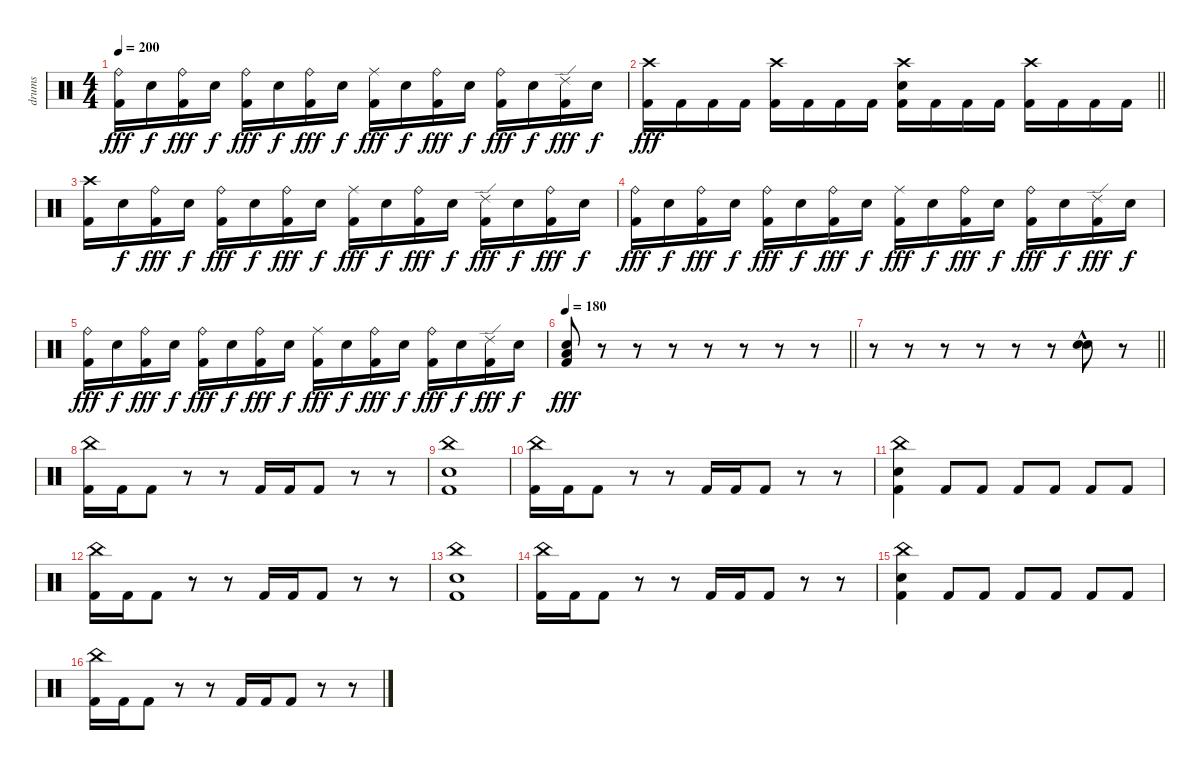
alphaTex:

\track ("drums" "drums") {instrument percussion}
\staff {score}
\articulation defaults
\ts (4 4)
\tempo 200
\clef neutral
\ks c
("Ride (bell)" "Kick (hit) 2").16{dy fff} "Electric Snare (hit)".16{dy f} ("Ride (bell)" "Kick (hit) 2").16{dy fff} "Electric Snare (hit)".16{dy f} ("Ride (bell)" "Kick (hit) 2").16{dy fff} "Electric Snare (hit)".16{dy f} ("Ride (bell)" "Kick (hit) 2").16{dy fff} "Electric Snare (hit)".16{dy f} ("Ride (middle)" "Kick (hit) 2").16{dy fff} "Electric Snare (hit)".16{dy f} ("Ride (bell)" "Kick (hit) 2").16{dy fff} "Electric Snare (hit)".16{dy f} ("Ride (bell)" "Kick (hit) 2").16{dy fff} "Electric Snare (hit)".16{dy f} ("Ride (edge) 2" "Kick (hit) 2").16{dy fff} "Electric Snare (hit)".16{dy f} |
\barLineRight lightlight
("Crash high (hit)" "Kick (hit) 2").16{dy fff} "Kick (hit) 2".16 "Kick (hit) 2".16 "Kick (hit) 2".16 ("Crash high (hit)" "Kick (hit) 2").16 "Kick (hit) 2".16 "Kick (hit) 2".16 "Kick (hit) 2".16 ("Crash high (hit)" "Electric Snare (hit)" "Kick (hit) 2").16 "Kick (hit) 2".16 "Kick (hit) 2".16 "Kick (hit) 2".16 ("Crash high (hit)" "Kick (hit) 2").16 "Kick (hit) 2".16 "Kick (hit) 2".16 "Kick (hit) 2".16 |
("Crash high (hit)" "Kick (hit) 2").16 "Electric Snare (hit)".16{dy f} ("Ride (bell)" "Kick (hit) 2").16{dy fff} "Electric Snare (hit)".16{dy f} ("Ride (bell)" "Kick (hit) 2").16{dy fff} "Electric Snare (hit)".16{dy f} ("Ride (bell)" "Kick (hit) 2").16{dy fff} "Electric Snare (hit)".16{dy f} ("Ride (middle)" "Kick (hit) 2").16{dy fff} "Electric Snare (hit)".16{dy f} ("Ride (bell)" "Kick (hit) 2").16{dy fff} "Electric Snare (hit)".16{dy f} ("Ride (edge) 2" "Kick (hit) 2").16{dy fff} "Electric Snare (hit)".16{dy f} ("Ride (bell)" "Kick (hit) 2").16{dy fff} "Electric Snare (hit)".16{dy f} |
("Ride (bell)" "Kick (hit) 2").16{dy fff} "Electric Snare (hit)".16{dy f} ("Ride (bell)" "Kick (hit) 2").16{dy fff} "Electric Snare (hit)".16{dy f} ("Ride (bell)" "Kick (hit) 2").16{dy fff} "Electric Snare (hit)".16{dy f} ("Ride (bell)" "Kick (hit) 2").16{dy fff} "Electric Snare (hit)".16{dy f} ("Ride (middle)" "Kick (hit) 2").16{dy fff} "Electric Snare (hit)".16{dy f} ("Ride (bell)" "Kick (hit) 2").16{dy fff} "Electric Snare (hit)".16{dy f} ("Ride (bell)" "Kick (hit) 2").16{dy fff} "Electric Snare (hit)".16{dy f} ("Ride (edge) 2" "Kick (hit) 2").16{dy fff} "Electric Snare (hit)".16{dy f} |
("Ride (bell)" "Kick (hit) 2").16{dy fff} "Electric Snare (hit)".16{dy f} ("Ride (bell)" "Kick (hit) 2").16{dy fff} "Electric Snare (hit)".16{dy f} ("Ride (bell)" "Kick (hit) 2").16{dy fff} "Electric Snare (hit)".16{dy f} ("Ride (bell)" "Kick (hit) 2").16{dy fff} "Electric Snare (hit)".16{dy f} ("Ride (middle)" "Kick (hit) 2").16{dy fff} "Electric Snare (hit)".16{dy f} ("Ride (bell)" "Kick (hit) 2").16{dy fff} "Electric Snare (hit)".16{dy f} ("Ride (bell)" "Kick (hit) 2").16{dy fff} "Electric Snare (hit)".16{dy f} ("Ride (edge) 2" "Kick (hit) 2").16{dy fff} "Electric Snare (hit)".16{dy f} |
\tempo 180
\barLineRight lightlight
("Low Floor Tom (hit)" "Electric Snare (hit)" "Kick (hit) 2").8{dy fff} r.8 r.8 r.8 r.8 r.8 r.8 r.8 |
\barLineRight lightlight
r.8 r.8 r.8 r.8 r.8 r.8 ("Electric Snare (hit)"{hac} "Electric Snare (hit)"{hac}).8 r.8 |
("China (hit)" "Kick (hit) 2").16 "Kick (hit) 2".16 "Kick (hit) 2".8 r.8 r.8 "Kick (hit) 2".16 "Kick (hit) 2".16 "Kick (hit) 2".8 r.8 r.8 |
("China (hit)" "Electric Snare (hit)" "Kick (hit) 2").1 |
("China (hit)" "Kick (hit) 2").16 "Kick (hit) 2".16 "Kick (hit) 2".8 r.8 r.8 "Kick (hit) 2".16 "Kick (hit) 2".16 "Kick (hit) 2".8 r.8 r.8 |
("China (hit)" "Electric Snare (hit)" "Kick (hit) 2").4 "Kick (hit) 2".8 "Kick (hit) 2".8 "Kick (hit) 2".8 "Kick (hit) 2".8 "Kick (hit) 2".8 "Kick (hit) 2".8 |
("China (hit)" "Kick (hit) 2").16 "Kick (hit) 2".16 "Kick (hit) 2".8 r.8 r.8 "Kick (hit) 2".16 "Kick (hit) 2".16 "Kick (hit) 2".8 r.8 r.8 |
("China (hit)" "Electric Snare (hit)" "Kick (hit) 2").1 |
("China (hit)" "Kick (hit) 2").16 "Kick (hit) 2".16 "Kick (hit) 2".8 r.8 r.8 "Kick (hit) 2".16 "Kick (hit) 2".16 "Kick (hit) 2".8 r.8 r.8 |
("China (hit)" "Electric Snare (hit)" "Kick (hit) 2").4 "Kick (hit) 2".8 "Kick (hit) 2".8 "Kick (hit) 2".8 "Kick (hit) 2".8 "Kick (hit) 2".8 "Kick (hit) 2".8 |
("China (hit)" "Kick (hit) 2").16 "Kick (hit) 2".16 "Kick (hit) 2".8 r.8 r.8 "Kick (hit) 2".16 "Kick (hit) 2".16 "Kick (hit) 2".8 r.8 r.8
